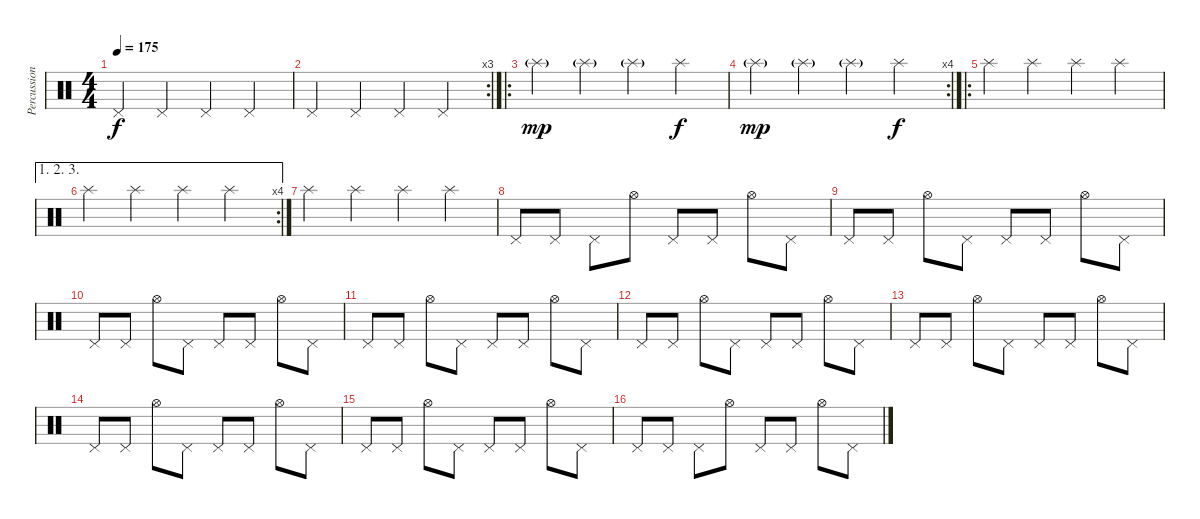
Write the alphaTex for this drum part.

\track ("Percussion" "Percussion") {instrument percussion}
\staff {score}
\articulation defaults
\ts (4 4)
\tempo 175
\clef neutral
\ks c "Pedal Hi-Hat (hit)".4{dy f} "Pedal Hi-Hat (hit)".4 "Pedal Hi-Hat (hit)".4 "Pedal Hi-Hat (hit)".4
|
\rc 3 "Pedal Hi-Hat (hit)".4 "Pedal Hi-Hat (hit)".4 "Pedal Hi-Hat (hit)".4 "Pedal Hi-Hat (hit)".4
|
\ro "Splash (hit)"{g}.4{dy mp} "Splash (hit)"{g}.4 "Splash (hit)"{g}.4 "Splash (hit)".4{dy f}
|
\rc 4 "Splash (hit)"{g}.4{dy mp} "Splash (hit)"{g}.4 "Splash (hit)"{g}.4 "Splash (hit)".4{dy f}
|
\ro "Splash (hit)".4 "Splash (hit)".4 "Splash (hit)".4 "Splash (hit)".4
|
\ae (1 2 3)
\rc 4 "Splash (hit)".4 "Splash (hit)".4 "Splash (hit)".4 "Splash (hit)".4
|
"Splash (hit)".4 "Splash (hit)".4 "Splash (hit)".4 "Splash (hit)".4 |
"Pedal Hi-Hat (hit)".8 "Pedal Hi-Hat (hit)".8 "Pedal Hi-Hat (hit)".8 "Hi-Hat (open)".8 "Pedal Hi-Hat (hit)".8 "Pedal Hi-Hat (hit)".8 "Hi-Hat (open)".8 "Pedal Hi-Hat (hit)".8 |
"Pedal Hi-Hat (hit)".8 "Pedal Hi-Hat (hit)".8 "Hi-Hat (open)".8 "Pedal Hi-Hat (hit)".8 "Pedal Hi-Hat (hit)".8 "Pedal Hi-Hat (hit)".8 "Hi-Hat (open)".8 "Pedal Hi-Hat (hit)".8 |
"Pedal Hi-Hat (hit)".8 "Pedal Hi-Hat (hit)".8 "Hi-Hat (open)".8 "Pedal Hi-Hat (hit)".8 "Pedal Hi-Hat (hit)".8 "Pedal Hi-Hat (hit)".8 "Hi-Hat (open)".8 "Pedal Hi-Hat (hit)".8 |
"Pedal Hi-Hat (hit)".8 "Pedal Hi-Hat (hit)".8 "Hi-Hat (open)".8 "Pedal Hi-Hat (hit)".8 "Pedal Hi-Hat (hit)".8 "Pedal Hi-Hat (hit)".8 "Hi-Hat (open)".8 "Pedal Hi-Hat (hit)".8 |
"Pedal Hi-Hat (hit)".8 "Pedal Hi-Hat (hit)".8 "Hi-Hat (open)".8 "Pedal Hi-Hat (hit)".8 "Pedal Hi-Hat (hit)".8 "Pedal Hi-Hat (hit)".8 "Hi-Hat (open)".8 "Pedal Hi-Hat (hit)".8 |
"Pedal Hi-Hat (hit)".8 "Pedal Hi-Hat (hit)".8 "Hi-Hat (open)".8 "Pedal Hi-Hat (hit)".8 "Pedal Hi-Hat (hit)".8 "Pedal Hi-Hat (hit)".8 "Hi-Hat (open)".8 "Pedal Hi-Hat (hit)".8 |
"Pedal Hi-Hat (hit)".8 "Pedal Hi-Hat (hit)".8 "Hi-Hat (open)".8 "Pedal Hi-Hat (hit)".8 "Pedal Hi-Hat (hit)".8 "Pedal Hi-Hat (hit)".8 "Hi-Hat (open)".8 "Pedal Hi-Hat (hit)".8 |
"Pedal Hi-Hat (hit)".8 "Pedal Hi-Hat (hit)".8 "Hi-Hat (open)".8 "Pedal Hi-Hat (hit)".8 "Pedal Hi-Hat (hit)".8 "Pedal Hi-Hat (hit)".8 "Hi-Hat (open)".8 "Pedal Hi-Hat (hit)".8 |
"Pedal Hi-Hat (hit)".8 "Pedal Hi-Hat (hit)".8 "Pedal Hi-Hat (hit)".8 "Hi-Hat (open)".8 "Pedal Hi-Hat (hit)".8 "Pedal Hi-Hat (hit)".8 "Hi-Hat (open)".8 "Pedal Hi-Hat (hit)".8
